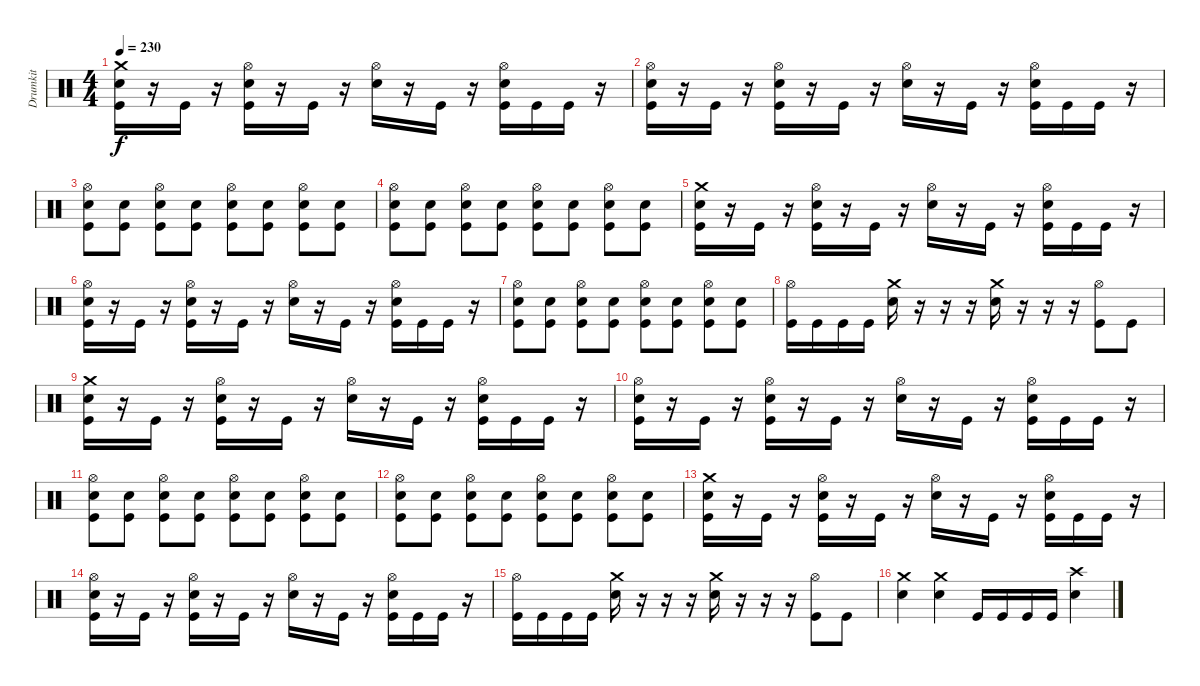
\track ("Drumkit" "Drumkit") {instrument percussion}
\staff {score}
\articulation defaults
\ts (4 4)
\tempo 230
\clef neutral
\ks c
("Crash medium (hit)" "Snare (hit) 2" "Kick (hit)").16{dy f} r.16 "Kick (hit)".16 r.16 ("Hi-Hat (open)" "Snare (hit) 2" "Kick (hit)").16 r.16 "Kick (hit)".16 r.16 ("Hi-Hat (open)" "Snare (hit) 2").16 r.16 "Kick (hit)".16 r.16 ("Hi-Hat (open)" "Snare (hit) 2" "Kick (hit)").16 "Kick (hit)".16 "Kick (hit)".16 r.16 |
("Hi-Hat (open)" "Snare (hit) 2" "Kick (hit)").16 r.16 "Kick (hit)".16 r.16 ("Hi-Hat (open)" "Snare (hit) 2" "Kick (hit)").16 r.16 "Kick (hit)".16 r.16 ("Hi-Hat (open)" "Snare (hit) 2").16 r.16 "Kick (hit)".16 r.16 ("Hi-Hat (open)" "Snare (hit) 2" "Kick (hit)").16 "Kick (hit)".16 "Kick (hit)".16 r.16 |
("Hi-Hat (open)" "Snare (hit) 2" "Kick (hit)").8 ("Snare (hit) 2" "Kick (hit)").8 ("Hi-Hat (open)" "Snare (hit) 2" "Kick (hit)").8 ("Snare (hit) 2" "Kick (hit)").8 ("Hi-Hat (open)" "Snare (hit) 2" "Kick (hit)").8 ("Snare (hit) 2" "Kick (hit)").8 ("Hi-Hat (open)" "Snare (hit) 2" "Kick (hit)").8 ("Snare (hit) 2" "Kick (hit)").8 |
("Hi-Hat (open)" "Snare (hit) 2" "Kick (hit)").8 ("Snare (hit) 2" "Kick (hit)").8 ("Hi-Hat (open)" "Snare (hit) 2" "Kick (hit)").8 ("Snare (hit) 2" "Kick (hit)").8 ("Hi-Hat (open)" "Snare (hit) 2" "Kick (hit)").8 ("Snare (hit) 2" "Kick (hit)").8 ("Hi-Hat (open)" "Snare (hit) 2" "Kick (hit)").8 ("Snare (hit) 2" "Kick (hit)").8 |
("Crash medium (hit)" "Snare (hit) 2" "Kick (hit)").16 r.16 "Kick (hit)".16 r.16 ("Hi-Hat (open)" "Snare (hit) 2" "Kick (hit)").16 r.16 "Kick (hit)".16 r.16 ("Hi-Hat (open)" "Snare (hit) 2").16 r.16 "Kick (hit)".16 r.16 ("Hi-Hat (open)" "Snare (hit) 2" "Kick (hit)").16 "Kick (hit)".16 "Kick (hit)".16 r.16 |
("Hi-Hat (open)" "Snare (hit) 2" "Kick (hit)").16 r.16 "Kick (hit)".16 r.16 ("Hi-Hat (open)" "Snare (hit) 2" "Kick (hit)").16 r.16 "Kick (hit)".16 r.16 ("Hi-Hat (open)" "Snare (hit) 2").16 r.16 "Kick (hit)".16 r.16 ("Hi-Hat (open)" "Snare (hit) 2" "Kick (hit)").16 "Kick (hit)".16 "Kick (hit)".16 r.16 |
("Hi-Hat (open)" "Snare (hit) 2" "Kick (hit)").8 ("Snare (hit) 2" "Kick (hit)").8 ("Hi-Hat (open)" "Snare (hit) 2" "Kick (hit)").8 ("Snare (hit) 2" "Kick (hit)").8 ("Hi-Hat (open)" "Snare (hit) 2" "Kick (hit)").8 ("Snare (hit) 2" "Kick (hit)").8 ("Hi-Hat (open)" "Snare (hit) 2" "Kick (hit)").8 ("Snare (hit) 2" "Kick (hit)").8 |
("Hi-Hat (open)" "Kick (hit)").16 "Kick (hit)".16 "Kick (hit)".16 "Kick (hit)".16 ("Crash medium (hit)" "Snare (hit) 2").16 r.16 r.16 r.16 ("Crash medium (hit)" "Snare (hit) 2").16 r.16 r.16 r.16 ("Hi-Hat (open)" "Kick (hit)").8 "Kick (hit)".8 |
("Crash medium (hit)" "Snare (hit) 2" "Kick (hit)").16 r.16 "Kick (hit)".16 r.16 ("Hi-Hat (open)" "Snare (hit) 2" "Kick (hit)").16 r.16 "Kick (hit)".16 r.16 ("Hi-Hat (open)" "Snare (hit) 2").16 r.16 "Kick (hit)".16 r.16 ("Hi-Hat (open)" "Snare (hit) 2" "Kick (hit)").16 "Kick (hit)".16 "Kick (hit)".16 r.16 |
("Hi-Hat (open)" "Snare (hit) 2" "Kick (hit)").16 r.16 "Kick (hit)".16 r.16 ("Hi-Hat (open)" "Snare (hit) 2" "Kick (hit)").16 r.16 "Kick (hit)".16 r.16 ("Hi-Hat (open)" "Snare (hit) 2").16 r.16 "Kick (hit)".16 r.16 ("Hi-Hat (open)" "Snare (hit) 2" "Kick (hit)").16 "Kick (hit)".16 "Kick (hit)".16 r.16 |
("Hi-Hat (open)" "Snare (hit) 2" "Kick (hit)").8 ("Snare (hit) 2" "Kick (hit)").8 ("Hi-Hat (open)" "Snare (hit) 2" "Kick (hit)").8 ("Snare (hit) 2" "Kick (hit)").8 ("Hi-Hat (open)" "Snare (hit) 2" "Kick (hit)").8 ("Snare (hit) 2" "Kick (hit)").8 ("Hi-Hat (open)" "Snare (hit) 2" "Kick (hit)").8 ("Snare (hit) 2" "Kick (hit)").8 |
("Hi-Hat (open)" "Snare (hit) 2" "Kick (hit)").8 ("Snare (hit) 2" "Kick (hit)").8 ("Hi-Hat (open)" "Snare (hit) 2" "Kick (hit)").8 ("Snare (hit) 2" "Kick (hit)").8 ("Hi-Hat (open)" "Snare (hit) 2" "Kick (hit)").8 ("Snare (hit) 2" "Kick (hit)").8 ("Hi-Hat (open)" "Snare (hit) 2" "Kick (hit)").8 ("Snare (hit) 2" "Kick (hit)").8 |
("Crash medium (hit)" "Snare (hit) 2" "Kick (hit)").16 r.16 "Kick (hit)".16 r.16 ("Hi-Hat (open)" "Snare (hit) 2" "Kick (hit)").16 r.16 "Kick (hit)".16 r.16 ("Hi-Hat (open)" "Snare (hit) 2").16 r.16 "Kick (hit)".16 r.16 ("Hi-Hat (open)" "Snare (hit) 2" "Kick (hit)").16 "Kick (hit)".16 "Kick (hit)".16 r.16 |
("Hi-Hat (open)" "Snare (hit) 2" "Kick (hit)").16 r.16 "Kick (hit)".16 r.16 ("Hi-Hat (open)" "Snare (hit) 2" "Kick (hit)").16 r.16 "Kick (hit)".16 r.16 ("Hi-Hat (open)" "Snare (hit) 2").16 r.16 "Kick (hit)".16 r.16 ("Hi-Hat (open)" "Snare (hit) 2" "Kick (hit)").16 "Kick (hit)".16 "Kick (hit)".16 r.16 |
("Hi-Hat (open)" "Kick (hit)").16 "Kick (hit)".16 "Kick (hit)".16 "Kick (hit)".16 ("Crash medium (hit)" "Snare (hit) 2").16 r.16 r.16 r.16 ("Crash medium (hit)" "Snare (hit) 2").16 r.16 r.16 r.16 ("Hi-Hat (open)" "Kick (hit)").8 "Kick (hit)".8 |
("Crash medium (hit)" "Snare (hit) 2").4 ("Crash medium (hit)" "Snare (hit) 2").4 "Kick (hit)".16 "Kick (hit)".16 "Kick (hit)".16 "Kick (hit)".16 ("Crash high (hit)" "Snare (hit) 2").4
